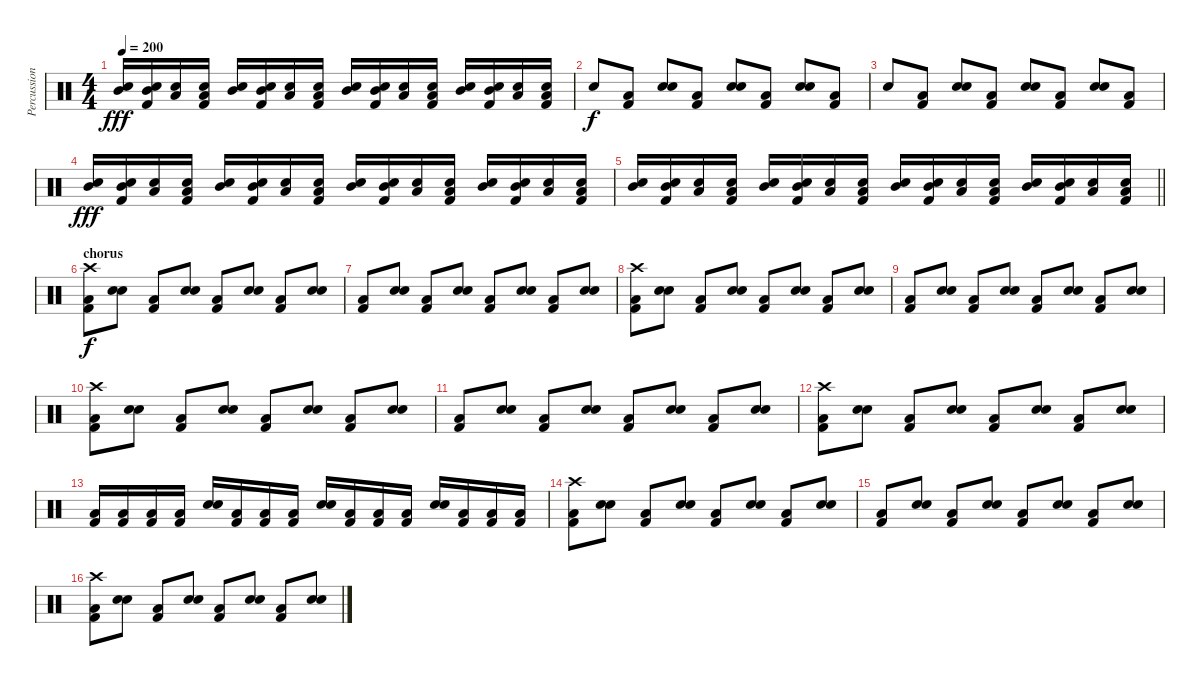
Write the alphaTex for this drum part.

\track ("Percussion, dave" "Percussion") {instrument percussion}
\staff {score}
\articulation defaults
\ts (4 4)
\tempo 200
\clef neutral
\ks c
("Mid Tom (hit)" "Electric Snare (hit)").16{dy fff} ("Mid Tom (hit)" "Electric Snare (hit)" "Kick (hit) 2").16 ("Low Tom (hit)" "Electric Snare (hit)").16 ("Low Tom (hit)" "Electric Snare (hit)" "Kick (hit) 2").16 ("Mid Tom (hit)" "Electric Snare (hit)").16 ("Mid Tom (hit)" "Electric Snare (hit)" "Kick (hit) 2").16 ("Low Tom (hit)" "Electric Snare (hit)").16 ("Low Tom (hit)" "Electric Snare (hit)" "Kick (hit) 2").16 ("Mid Tom (hit)" "Electric Snare (hit)").16 ("Mid Tom (hit)" "Electric Snare (hit)" "Kick (hit) 2").16 ("Low Tom (hit)" "Electric Snare (hit)").16 ("Low Tom (hit)" "Electric Snare (hit)" "Kick (hit) 2").16 ("Mid Tom (hit)" "Electric Snare (hit)").16 ("Mid Tom (hit)" "Electric Snare (hit)" "Kick (hit) 2").16 ("Low Tom (hit)" "Electric Snare (hit)").16 ("Low Tom (hit)" "Electric Snare (hit)" "Kick (hit) 2").16 |
"Snare (hit) 2".8{dy f} ("Low Tom (hit)" "Kick (hit) 2").8 ("Electric Snare (hit)" "Snare (hit) 2").8 ("Low Tom (hit)" "Kick (hit) 2").8 ("Electric Snare (hit)" "Snare (hit) 2").8 ("Low Tom (hit)" "Kick (hit) 2").8 ("Electric Snare (hit)" "Snare (hit) 2").8 ("Low Tom (hit)" "Kick (hit) 2").8 |
"Snare (hit) 2".8 ("Low Tom (hit)" "Kick (hit) 2").8 ("Electric Snare (hit)" "Snare (hit) 2").8 ("Low Tom (hit)" "Kick (hit) 2").8 ("Electric Snare (hit)" "Snare (hit) 2").8 ("Low Tom (hit)" "Kick (hit) 2").8 ("Electric Snare (hit)" "Snare (hit) 2").8 ("Low Tom (hit)" "Kick (hit) 2").8 |
("Mid Tom (hit)" "Electric Snare (hit)").16{dy fff} ("Mid Tom (hit)" "Electric Snare (hit)" "Kick (hit) 2").16 ("Low Tom (hit)" "Electric Snare (hit)").16 ("Low Tom (hit)" "Electric Snare (hit)" "Kick (hit) 2").16 ("Mid Tom (hit)" "Electric Snare (hit)").16 ("Mid Tom (hit)" "Electric Snare (hit)" "Kick (hit) 2").16 ("Low Tom (hit)" "Electric Snare (hit)").16 ("Low Tom (hit)" "Electric Snare (hit)" "Kick (hit) 2").16 ("Mid Tom (hit)" "Electric Snare (hit)").16 ("Mid Tom (hit)" "Electric Snare (hit)" "Kick (hit) 2").16 ("Low Tom (hit)" "Electric Snare (hit)").16 ("Low Tom (hit)" "Electric Snare (hit)" "Kick (hit) 2").16 ("Mid Tom (hit)" "Electric Snare (hit)").16 ("Mid Tom (hit)" "Electric Snare (hit)" "Kick (hit) 2").16 ("Low Tom (hit)" "Electric Snare (hit)").16 ("Low Tom (hit)" "Electric Snare (hit)" "Kick (hit) 2").16 |
\barLineRight lightlight
("Mid Tom (hit)" "Electric Snare (hit)").16 ("Mid Tom (hit)" "Electric Snare (hit)" "Kick (hit) 2").16 ("Low Tom (hit)" "Electric Snare (hit)").16 ("Low Tom (hit)" "Electric Snare (hit)" "Kick (hit) 2").16 ("Mid Tom (hit)" "Electric Snare (hit)").16 ("Mid Tom (hit)" "Electric Snare (hit)" "Kick (hit) 2").16 ("Low Tom (hit)" "Electric Snare (hit)").16 ("Low Tom (hit)" "Electric Snare (hit)" "Kick (hit) 2").16 ("Mid Tom (hit)" "Electric Snare (hit)").16 ("Mid Tom (hit)" "Electric Snare (hit)" "Kick (hit) 2").16 ("Low Tom (hit)" "Electric Snare (hit)").16 ("Low Tom (hit)" "Electric Snare (hit)" "Kick (hit) 2").16 ("Mid Tom (hit)" "Electric Snare (hit)").16 ("Mid Tom (hit)" "Electric Snare (hit)" "Kick (hit) 2").16 ("Low Tom (hit)" "Electric Snare (hit)").16 ("Low Tom (hit)" "Electric Snare (hit)" "Kick (hit) 2").16 |
\section ("" "chorus")
("Crash high (hit)" "Low Tom (hit)" "Kick (hit) 2").8{dy f} ("Snare (hit) 2" "Electric Snare (hit)").8 ("Low Tom (hit)" "Kick (hit) 2").8 ("Snare (hit) 2" "Electric Snare (hit)").8 ("Low Tom (hit)" "Kick (hit) 2").8 ("Snare (hit) 2" "Electric Snare (hit)").8 ("Low Tom (hit)" "Kick (hit) 2").8 ("Snare (hit) 2" "Electric Snare (hit)").8 |
("Low Tom (hit)" "Kick (hit) 2").8 ("Snare (hit) 2" "Electric Snare (hit)").8 ("Low Tom (hit)" "Kick (hit) 2").8 ("Snare (hit) 2" "Electric Snare (hit)").8 ("Low Tom (hit)" "Kick (hit) 2").8 ("Snare (hit) 2" "Electric Snare (hit)").8 ("Low Tom (hit)" "Kick (hit) 2").8 ("Snare (hit) 2" "Electric Snare (hit)").8 |
("Crash high (hit)" "Low Tom (hit)" "Kick (hit) 2").8 ("Snare (hit) 2" "Electric Snare (hit)").8 ("Low Tom (hit)" "Kick (hit) 2").8 ("Snare (hit) 2" "Electric Snare (hit)").8 ("Low Tom (hit)" "Kick (hit) 2").8 ("Snare (hit) 2" "Electric Snare (hit)").8 ("Low Tom (hit)" "Kick (hit) 2").8 ("Snare (hit) 2" "Electric Snare (hit)").8 |
("Low Tom (hit)" "Kick (hit) 2").8 ("Snare (hit) 2" "Electric Snare (hit)").8 ("Low Tom (hit)" "Kick (hit) 2").8 ("Snare (hit) 2" "Electric Snare (hit)").8 ("Low Tom (hit)" "Kick (hit) 2").8 ("Snare (hit) 2" "Electric Snare (hit)").8 ("Low Tom (hit)" "Kick (hit) 2").8 ("Snare (hit) 2" "Electric Snare (hit)").8 |
("Crash high (hit)" "Low Tom (hit)" "Kick (hit) 2").8 ("Snare (hit) 2" "Electric Snare (hit)").8 ("Low Tom (hit)" "Kick (hit) 2").8 ("Snare (hit) 2" "Electric Snare (hit)").8 ("Low Tom (hit)" "Kick (hit) 2").8 ("Snare (hit) 2" "Electric Snare (hit)").8 ("Low Tom (hit)" "Kick (hit) 2").8 ("Snare (hit) 2" "Electric Snare (hit)").8 |
("Low Tom (hit)" "Kick (hit) 2").8 ("Snare (hit) 2" "Electric Snare (hit)").8 ("Low Tom (hit)" "Kick (hit) 2").8 ("Snare (hit) 2" "Electric Snare (hit)").8 ("Low Tom (hit)" "Kick (hit) 2").8 ("Snare (hit) 2" "Electric Snare (hit)").8 ("Low Tom (hit)" "Kick (hit) 2").8 ("Snare (hit) 2" "Electric Snare (hit)").8 |
("Crash high (hit)" "Low Tom (hit)" "Kick (hit) 2").8 ("Snare (hit) 2" "Electric Snare (hit)").8 ("Low Tom (hit)" "Kick (hit) 2").8 ("Snare (hit) 2" "Electric Snare (hit)").8 ("Low Tom (hit)" "Kick (hit) 2").8 ("Snare (hit) 2" "Electric Snare (hit)").8 ("Low Tom (hit)" "Kick (hit) 2").8 ("Snare (hit) 2" "Electric Snare (hit)").8 |
("Low Tom (hit)" "Kick (hit) 2").16 ("Low Tom (hit)" "Kick (hit) 2").16 ("Low Tom (hit)" "Kick (hit) 2").16 ("Low Tom (hit)" "Kick (hit) 2").16 ("Electric Snare (hit)" "Snare (hit) 2").16 ("Low Tom (hit)" "Kick (hit) 2").16 ("Low Tom (hit)" "Kick (hit) 2").16 ("Low Tom (hit)" "Kick (hit) 2").16 ("Electric Snare (hit)" "Snare (hit) 2").16 ("Low Tom (hit)" "Kick (hit) 2").16 ("Low Tom (hit)" "Kick (hit) 2").16 ("Low Tom (hit)" "Kick (hit) 2").16 ("Electric Snare (hit)" "Snare (hit) 2").16 ("Low Tom (hit)" "Kick (hit) 2").16 ("Low Tom (hit)" "Kick (hit) 2").16 ("Low Tom (hit)" "Kick (hit) 2").16 |
("Crash high (hit)" "Low Tom (hit)" "Kick (hit) 2").8 ("Snare (hit) 2" "Electric Snare (hit)").8 ("Low Tom (hit)" "Kick (hit) 2").8 ("Snare (hit) 2" "Electric Snare (hit)").8 ("Low Tom (hit)" "Kick (hit) 2").8 ("Snare (hit) 2" "Electric Snare (hit)").8 ("Low Tom (hit)" "Kick (hit) 2").8 ("Snare (hit) 2" "Electric Snare (hit)").8 |
("Low Tom (hit)" "Kick (hit) 2").8 ("Snare (hit) 2" "Electric Snare (hit)").8 ("Low Tom (hit)" "Kick (hit) 2").8 ("Snare (hit) 2" "Electric Snare (hit)").8 ("Low Tom (hit)" "Kick (hit) 2").8 ("Snare (hit) 2" "Electric Snare (hit)").8 ("Low Tom (hit)" "Kick (hit) 2").8 ("Snare (hit) 2" "Electric Snare (hit)").8 |
("Crash high (hit)" "Low Tom (hit)" "Kick (hit) 2").8 ("Snare (hit) 2" "Electric Snare (hit)").8 ("Low Tom (hit)" "Kick (hit) 2").8 ("Snare (hit) 2" "Electric Snare (hit)").8 ("Low Tom (hit)" "Kick (hit) 2").8 ("Snare (hit) 2" "Electric Snare (hit)").8 ("Low Tom (hit)" "Kick (hit) 2").8 ("Snare (hit) 2" "Electric Snare (hit)").8
